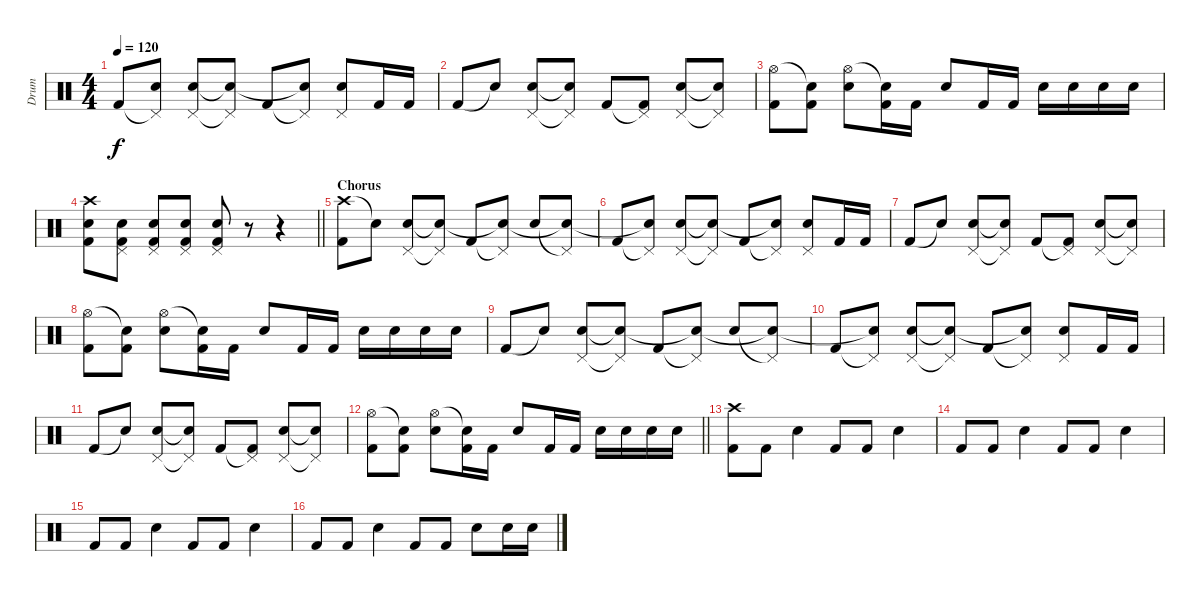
\track ("Drum" "Drum") {instrument percussion}
\staff {score}
\articulation defaults
\ts (4 4)
\tempo 120
\clef neutral
\ks c "Kick (hit) 2".8{dy f volume 11}
("Pedal Hi-Hat (hit)"{t} "Snare (hit)"{t}).8 ("Pedal Hi-Hat (hit)" "Electric Snare (hit)").8 ("Pedal Hi-Hat (hit)"{t} "Snare (hit)"{t}).8 "Kick (hit) 2".8 ("Pedal Hi-Hat (hit)"{t} "Snare (hit)"{t}).8 ("Pedal Hi-Hat (hit)" "Electric Snare (hit)").8 "Kick (hit) 2".16 "Kick (hit) 2".16 |
"Kick (hit) 2".8{volume 11} "Snare (hit)"{t}.8 ("Pedal Hi-Hat (hit)" "Electric Snare (hit)").8 ("Pedal Hi-Hat (hit)"{t} "Snare (hit)"{t}).8 "Kick (hit) 2".8 ("Pedal Hi-Hat (hit)"{t} "Kick (hit) 2").8 ("Pedal Hi-Hat (hit)" "Electric Snare (hit)").8 ("Pedal Hi-Hat (hit)"{t} "Snare (hit)"{t}).8 |
("Hi-Hat (open)" "Kick (hit) 2").8 ("Snare (hit)"{t} "Kick (hit) 2").8 ("Hi-Hat (open)" "Electric Snare (hit)").8 ("Snare (hit)"{t} "Kick (hit) 2").16 "Kick (hit) 2".16 "Electric Snare (hit)".8 "Kick (hit) 2".16 "Kick (hit) 2".16 "Electric Snare (hit)".16 "Electric Snare (hit)".16 "Electric Snare (hit)".16 "Electric Snare (hit)".16 |
\barLineRight lightlight
("Crash high (hit)" "Electric Snare (hit)" "Kick (hit) 2").8 ("Pedal Hi-Hat (hit)" "Electric Snare (hit)" "Kick (hit) 2").8 ("Pedal Hi-Hat (hit)" "Electric Snare (hit)" "Kick (hit) 2").8 ("Pedal Hi-Hat (hit)" "Electric Snare (hit)" "Kick (hit) 2").8 ("Pedal Hi-Hat (hit)" "Electric Snare (hit)" "Kick (hit) 2").8 r.8 r.4 |
\section ("" "Chorus")
("Crash high (hit)" "Kick (hit) 2").8{volume 15} "Snare (hit)"{t}.8 ("Pedal Hi-Hat (hit)" "Electric Snare (hit)").8 ("Pedal Hi-Hat (hit)"{t} "Snare (hit)"{t}).8 "Kick (hit) 2".8 ("Pedal Hi-Hat (hit)"{t} "Snare (hit)"{t}).8 "Electric Snare (hit)".8 ("Pedal Hi-Hat (hit)"{t} "Snare (hit)"{t}).8 |
"Kick (hit) 2".8{volume 11} ("Pedal Hi-Hat (hit)"{t} "Snare (hit)"{t}).8 ("Pedal Hi-Hat (hit)" "Electric Snare (hit)").8 ("Pedal Hi-Hat (hit)"{t} "Snare (hit)"{t}).8 "Kick (hit) 2".8 ("Pedal Hi-Hat (hit)"{t} "Snare (hit)"{t}).8 ("Pedal Hi-Hat (hit)" "Electric Snare (hit)").8 "Kick (hit) 2".16 "Kick (hit) 2".16 |
"Kick (hit) 2".8{volume 11} "Snare (hit)"{t}.8 ("Pedal Hi-Hat (hit)" "Electric Snare (hit)").8 ("Pedal Hi-Hat (hit)"{t} "Snare (hit)"{t}).8 "Kick (hit) 2".8 ("Pedal Hi-Hat (hit)"{t} "Kick (hit) 2").8 ("Pedal Hi-Hat (hit)" "Electric Snare (hit)").8 ("Pedal Hi-Hat (hit)"{t} "Snare (hit)"{t}).8 |
("Hi-Hat (open)" "Kick (hit) 2").8 ("Snare (hit)"{t} "Kick (hit) 2").8 ("Hi-Hat (open)" "Electric Snare (hit)").8 ("Snare (hit)"{t} "Kick (hit) 2").16 "Kick (hit) 2".16 "Electric Snare (hit)".8 "Kick (hit) 2".16 "Kick (hit) 2".16 "Electric Snare (hit)".16 "Electric Snare (hit)".16 "Electric Snare (hit)".16 "Electric Snare (hit)".16 |
"Kick (hit) 2".8{volume 11} "Snare (hit)"{t}.8 ("Pedal Hi-Hat (hit)" "Electric Snare (hit)").8 ("Pedal Hi-Hat (hit)"{t} "Snare (hit)"{t}).8 "Kick (hit) 2".8 ("Pedal Hi-Hat (hit)"{t} "Snare (hit)"{t}).8 "Electric Snare (hit)".8 ("Pedal Hi-Hat (hit)"{t} "Snare (hit)"{t}).8 |
"Kick (hit) 2".8{volume 11} ("Pedal Hi-Hat (hit)"{t} "Snare (hit)"{t}).8 ("Pedal Hi-Hat (hit)" "Electric Snare (hit)").8 ("Pedal Hi-Hat (hit)"{t} "Snare (hit)"{t}).8 "Kick (hit) 2".8 ("Pedal Hi-Hat (hit)"{t} "Snare (hit)"{t}).8 ("Pedal Hi-Hat (hit)" "Electric Snare (hit)").8 "Kick (hit) 2".16 "Kick (hit) 2".16 |
"Kick (hit) 2".8{volume 11} "Snare (hit)"{t}.8 ("Pedal Hi-Hat (hit)" "Electric Snare (hit)").8 ("Pedal Hi-Hat (hit)"{t} "Snare (hit)"{t}).8 "Kick (hit) 2".8 ("Pedal Hi-Hat (hit)"{t} "Kick (hit) 2").8 ("Pedal Hi-Hat (hit)" "Electric Snare (hit)").8 ("Pedal Hi-Hat (hit)"{t} "Snare (hit)"{t}).8 |
\barLineRight lightlight
("Hi-Hat (open)" "Kick (hit) 2").8 ("Snare (hit)"{t} "Kick (hit) 2").8 ("Hi-Hat (open)" "Electric Snare (hit)").8 ("Snare (hit)"{t} "Kick (hit) 2").16 "Kick (hit) 2".16 "Electric Snare (hit)".8 "Kick (hit) 2".16 "Kick (hit) 2".16 "Electric Snare (hit)".16 "Electric Snare (hit)".16 "Electric Snare (hit)".16 "Electric Snare (hit)".16 |
("Crash high (hit)" "Kick (hit) 2").8 "Kick (hit) 2".8 "Electric Snare (hit)".4 "Kick (hit) 2".8 "Kick (hit) 2".8 "Electric Snare (hit)".4 |
"Kick (hit) 2".8 "Kick (hit) 2".8 "Electric Snare (hit)".4 "Kick (hit) 2".8 "Kick (hit) 2".8 "Electric Snare (hit)".4 |
"Kick (hit) 2".8 "Kick (hit) 2".8 "Electric Snare (hit)".4 "Kick (hit) 2".8 "Kick (hit) 2".8 "Electric Snare (hit)".4 |
"Kick (hit) 2".8 "Kick (hit) 2".8 "Electric Snare (hit)".4 "Kick (hit) 2".8 "Kick (hit) 2".8 "Electric Snare (hit)".8 "Electric Snare (hit)".16 "Electric Snare (hit)".16
